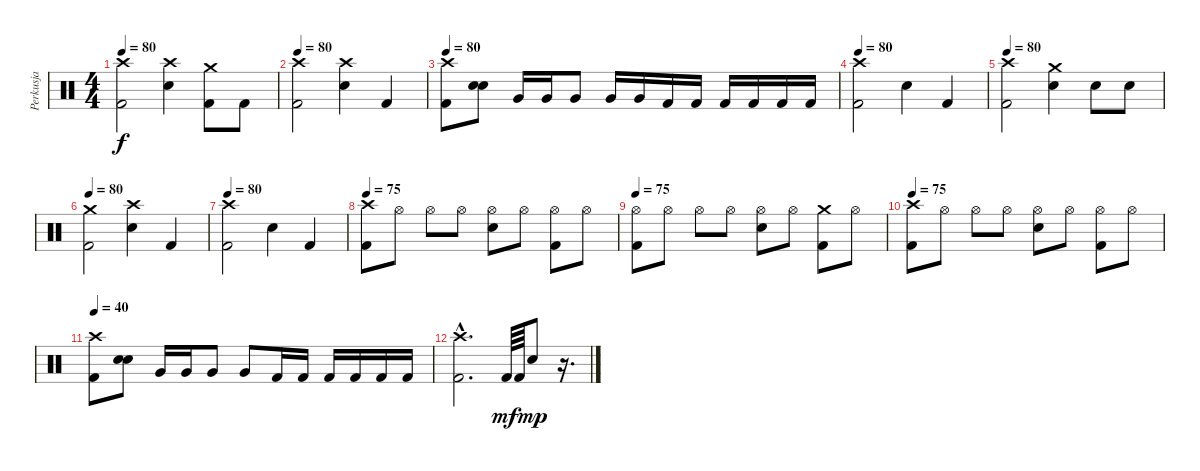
\track ("Perkusja" "Perkusja") {instrument percussion}
\staff {score}
\articulation defaults
\ts (4 4)
\tempo 80
\clef neutral
\ks c
("Crash high (hit)" "Kick (hit) 2").2{dy f} ("Crash high (hit)" "Snare (hit) 2").4 ("Crash medium (hit)" "Kick (hit) 2").8 "Kick (hit) 2".8 |
\tempo 80
("Crash high (hit)" "Kick (hit) 2").2 ("Crash high (hit)" "Snare (hit) 2").4 "Kick (hit) 2".4 |
\tempo 80
("Crash high (hit)" "Kick (hit) 2").8 ("Snare (hit) 2" "Snare (hit) 2").8{bd 120} "Very Low Tom (hit)".16 "Very Low Tom (hit)".16 "Very Low Tom (hit)".8 "Very Low Tom (hit)".16 "Very Low Tom (hit)".16 "Kick (hit) 2".16 "Kick (hit) 2".16 "Kick (hit) 2".16 "Kick (hit) 2".16 "Kick (hit) 2".16 "Kick (hit) 2".16 |
\tempo 80
("Crash high (hit)" "Kick (hit) 2").2 "Snare (hit) 2".4 "Kick (hit) 2".4 |
\tempo 80
("Crash high (hit)" "Kick (hit) 2").2 ("Crash medium (hit)" "Snare (hit) 2").4 "Snare (hit) 2".8 "Snare (hit) 2".8 |
\tempo 80
("Crash medium (hit)" "Kick (hit) 2").2 ("Crash high (hit)" "Snare (hit) 2").4 "Kick (hit) 2".4 |
\tempo 80
("Crash high (hit)" "Kick (hit) 2").2 "Snare (hit) 2".4 "Kick (hit) 2".4 |
\tempo 75
("Crash high (hit)" "Kick (hit) 2").8 "Hi-Hat (open)".8 "Hi-Hat (open)".8 "Hi-Hat (open)".8 ("Hi-Hat (open)" "Snare (hit) 2").8 "Hi-Hat (open)".8 ("Hi-Hat (open)" "Kick (hit) 2").8 "Hi-Hat (open)".8 |
\tempo 75
("Hi-Hat (open)" "Kick (hit) 2").8 "Hi-Hat (open)".8 "Hi-Hat (open)".8 "Hi-Hat (open)".8 ("Hi-Hat (open)" "Snare (hit) 2").8 "Hi-Hat (open)".8 ("Crash medium (hit)" "Kick (hit) 2").8 "Hi-Hat (open)".8 |
\tempo 75
("Crash high (hit)" "Kick (hit) 2").8 "Hi-Hat (open)".8 "Hi-Hat (open)".8 "Hi-Hat (open)".8 ("Hi-Hat (open)" "Snare (hit) 2").8 "Hi-Hat (open)".8 ("Hi-Hat (open)" "Kick (hit) 2").8 "Hi-Hat (open)".8 |
\tempo 40
("Crash high (hit)" "Kick (hit) 2").8 ("Snare (hit) 2" "Snare (hit) 2").8{bd 120} "Very Low Tom (hit)".16 "Very Low Tom (hit)".16 "Very Low Tom (hit)".8 "Very Low Tom (hit)".8 "Kick (hit) 2".16 "Kick (hit) 2".16 "Kick (hit) 2".16 "Kick (hit) 2".16 "Kick (hit) 2".16 "Kick (hit) 2".16 |
("Crash high (hit)"{hac} "Kick (hit) 2"{hac}).2{d} "Kick (hit) 2".64{dy mf} "Kick (hit) 2".64 "Snare (hit) 2".8{dy mp} r.16{d}
